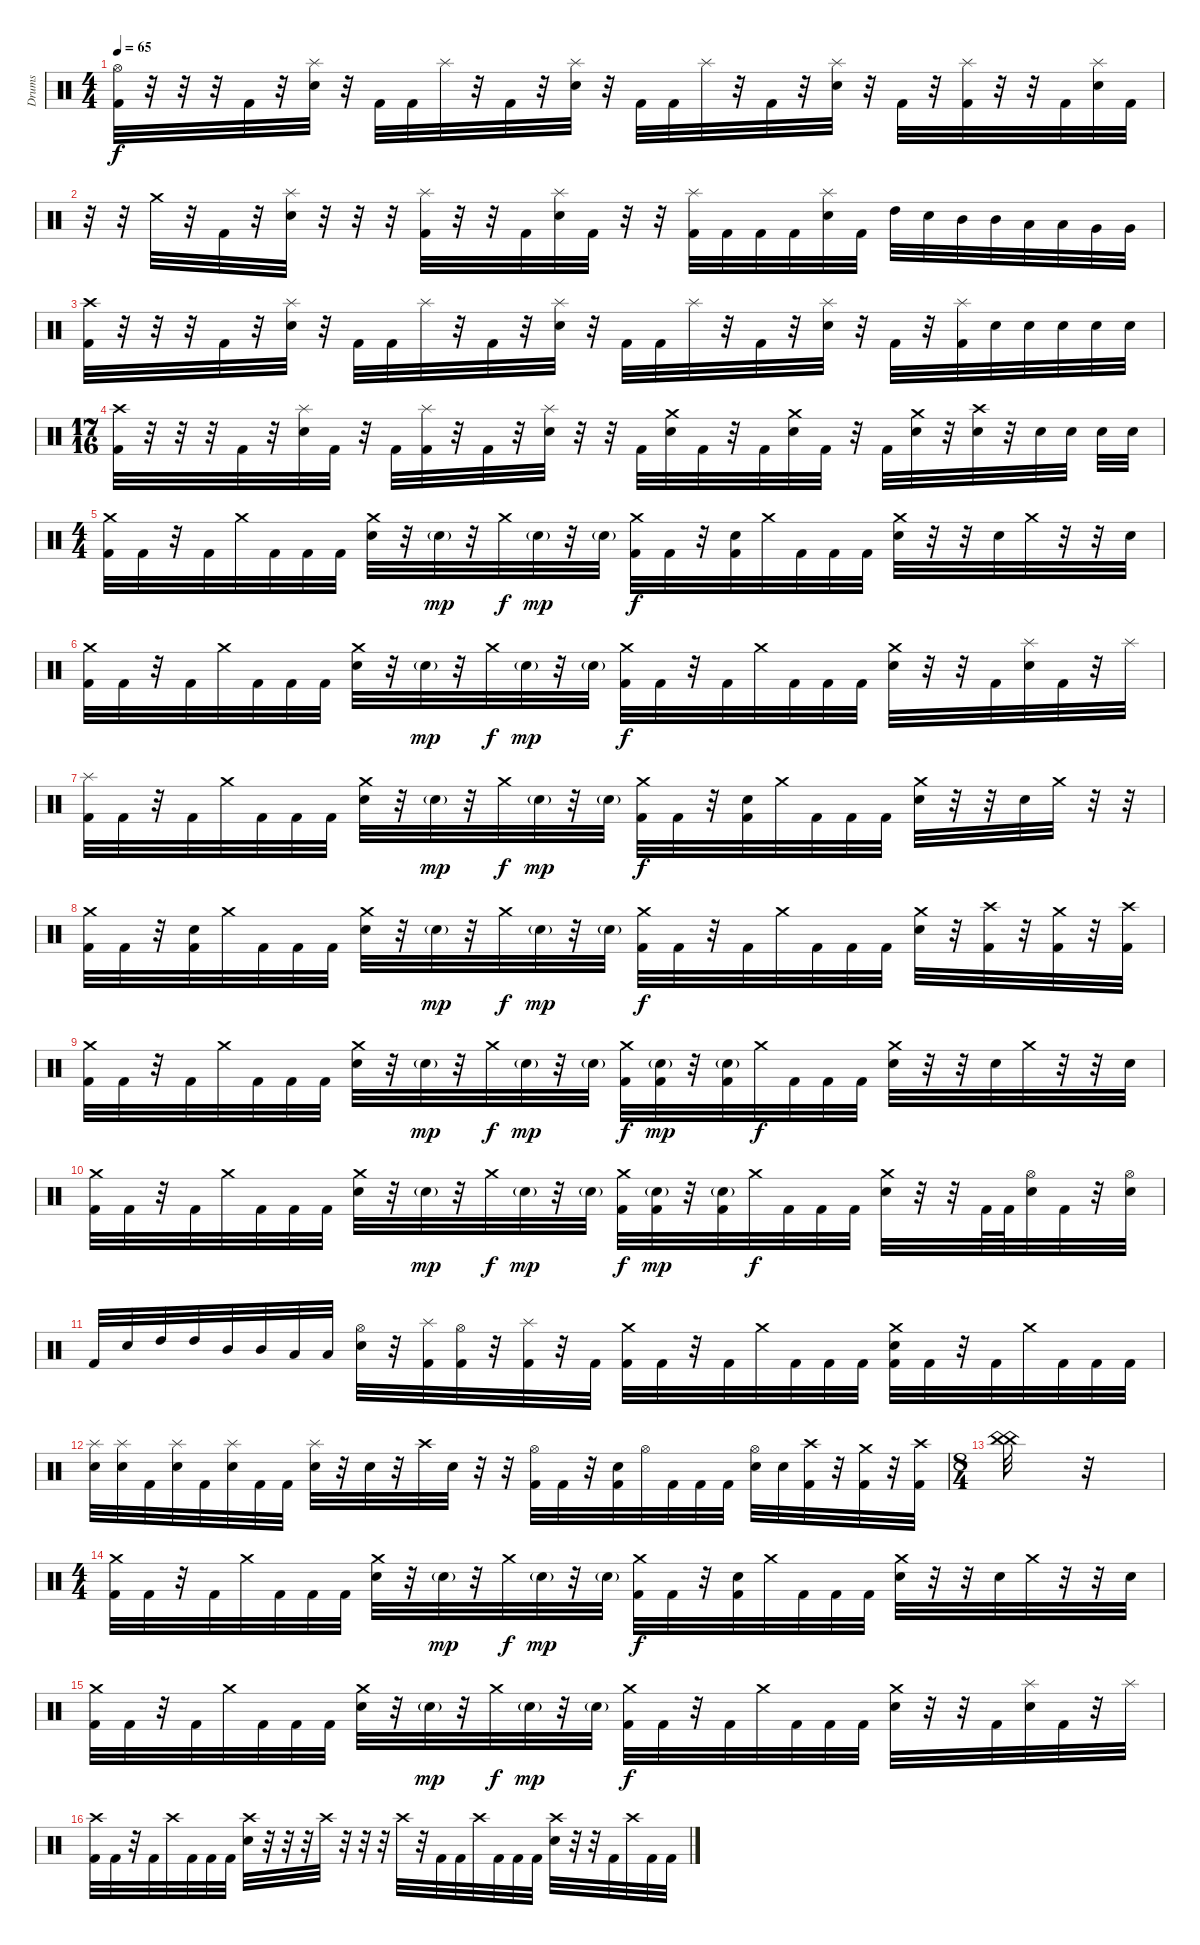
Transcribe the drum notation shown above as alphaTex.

\track ("Drums" "Drums") {instrument percussion}
\staff {score}
\articulation defaults
\ts (4 4)
\tempo 65
\clef neutral
\ks c
("Hi-Hat (open)" "Kick (hit) 2").32{dy f} r.32 r.32 r.32 "Kick (hit) 2".32 r.32 ("Splash (hit)" "Electric Snare (hit)").32 r.32 "Kick (hit) 2".32 "Kick (hit) 2".32 "Splash (hit)".32 r.32 "Kick (hit) 2".32 r.32 ("Splash (hit)" "Electric Snare (hit)").32 r.32 "Kick (hit) 2".32 "Kick (hit) 2".32 "Splash (hit)".32 r.32 "Kick (hit) 2".32 r.32 ("Splash (hit)" "Electric Snare (hit)").32 r.32 "Kick (hit) 2".32 r.32 ("Splash (hit)" "Kick (hit) 2").32 r.32 r.32 "Kick (hit) 2".32 ("Splash (hit)" "Electric Snare (hit)").32 "Kick (hit) 2".32 |
r.32 r.32 "Crash medium (hit)".32 r.32 "Kick (hit) 2".32 r.32 ("Splash (hit)" "Electric Snare (hit)").32 r.32 r.32 r.32 ("Splash (hit)" "Kick (hit) 2").32 r.32 r.32 "Kick (hit) 2".32 ("Splash (hit)" "Electric Snare (hit)").32 "Kick (hit) 2".32 r.32 r.32 ("Splash (hit)" "Kick (hit) 2").32 "Kick (hit) 2".32 "Kick (hit) 2".32 "Kick (hit) 2".32 ("Splash (hit)" "Electric Snare (hit)").32 "Kick (hit) 2".32 "High Tom (hit)".32 "Electric Snare (hit)".32 "Mid Tom (hit)".32 "Mid Tom (hit)".32 "Low Tom (hit)".32 "Low Tom (hit)".32 "Very Low Tom (hit)".32 "Very Low Tom (hit)".32 |
("Crash high (hit)" "Kick (hit) 2").32 r.32 r.32 r.32 "Kick (hit) 2".32 r.32 ("Splash (hit)" "Electric Snare (hit)").32 r.32 "Kick (hit) 2".32 "Kick (hit) 2".32 "Splash (hit)".32 r.32 "Kick (hit) 2".32 r.32 ("Splash (hit)" "Electric Snare (hit)").32 r.32 "Kick (hit) 2".32 "Kick (hit) 2".32 "Splash (hit)".32 r.32 "Kick (hit) 2".32 r.32 ("Splash (hit)" "Electric Snare (hit)").32 r.32 "Kick (hit) 2".32 r.32 ("Splash (hit)" "Kick (hit) 2").32 "Electric Snare (hit)".32 "Electric Snare (hit)".32 "Electric Snare (hit)".32 "Electric Snare (hit)".32 "Electric Snare (hit)".32 |
\ts (17 16)
("Crash high (hit)" "Kick (hit) 2").32 r.32 r.32 r.32 "Kick (hit) 2".32 r.32 ("Splash (hit)" "Electric Snare (hit)").32 "Kick (hit) 2".32 r.32 "Kick (hit) 2".32 ("Splash (hit)" "Kick (hit) 2").32 r.32 "Kick (hit) 2".32 r.32 ("Splash (hit)" "Electric Snare (hit)").32 r.32 r.32 "Kick (hit) 2".32 ("Crash medium (hit)" "Electric Snare (hit)").32 "Kick (hit) 2".32 r.32 "Kick (hit) 2".32 ("Crash medium (hit)" "Electric Snare (hit)").32 "Kick (hit) 2".32 r.32 "Kick (hit) 2".32 ("Crash medium (hit)" "Electric Snare (hit)").32 r.32 ("Crash high (hit)" "Electric Snare (hit)").32 r.32 "Electric Snare (hit)".32 "Electric Snare (hit)".32 "Electric Snare (hit)".32 "Electric Snare (hit)".32 |
\ts (4 4)
("Crash medium (hit)" "Kick (hit) 2").32 "Kick (hit) 2".32 r.32 "Kick (hit) 2".32 "Crash medium (hit)".32 "Kick (hit) 2".32 "Kick (hit) 2".32 "Kick (hit) 2".32 ("Crash medium (hit)" "Electric Snare (hit)").32 r.32 "Electric Snare (hit)"{g}.32{dy mp} r.32 "Crash medium (hit)".32{dy f} "Electric Snare (hit)"{g}.32{dy mp} r.32 "Electric Snare (hit)"{g}.32 ("Crash medium (hit)" "Kick (hit) 2").32{dy f} "Kick (hit) 2".32 r.32 ("Electric Snare (hit)" "Kick (hit) 2").32 "Crash medium (hit)".32 "Kick (hit) 2".32 "Kick (hit) 2".32 "Kick (hit) 2".32 ("Crash medium (hit)" "Electric Snare (hit)").32 r.32 r.32 "Electric Snare (hit)".32 "Crash medium (hit)".32 r.32 r.32 "Electric Snare (hit)".32 |
("Crash medium (hit)" "Kick (hit) 2").32 "Kick (hit) 2".32 r.32 "Kick (hit) 2".32 "Crash medium (hit)".32 "Kick (hit) 2".32 "Kick (hit) 2".32 "Kick (hit) 2".32 ("Crash medium (hit)" "Electric Snare (hit)").32 r.32 "Electric Snare (hit)"{g}.32{dy mp} r.32 "Crash medium (hit)".32{dy f} "Electric Snare (hit)"{g}.32{dy mp} r.32 "Electric Snare (hit)"{g}.32 ("Crash medium (hit)" "Kick (hit) 2").32{dy f} "Kick (hit) 2".32 r.32 "Kick (hit) 2".32 "Crash medium (hit)".32 "Kick (hit) 2".32 "Kick (hit) 2".32 "Kick (hit) 2".32 ("Crash medium (hit)" "Electric Snare (hit)").32 r.32 r.32 "Kick (hit) 2".32 ("Splash (hit)" "Electric Snare (hit)").32 "Kick (hit) 2".32 r.32 "Splash (hit)".32 |
("Splash (hit)" "Kick (hit) 2").32 "Kick (hit) 2".32 r.32 "Kick (hit) 2".32 "Crash medium (hit)".32 "Kick (hit) 2".32 "Kick (hit) 2".32 "Kick (hit) 2".32 ("Crash medium (hit)" "Electric Snare (hit)").32 r.32 "Electric Snare (hit)"{g}.32{dy mp} r.32 "Crash medium (hit)".32{dy f} "Electric Snare (hit)"{g}.32{dy mp} r.32 "Electric Snare (hit)"{g}.32 ("Crash medium (hit)" "Kick (hit) 2").32{dy f} "Kick (hit) 2".32 r.32 ("Electric Snare (hit)" "Kick (hit) 2").32 "Crash medium (hit)".32 "Kick (hit) 2".32 "Kick (hit) 2".32 "Kick (hit) 2".32 ("Crash medium (hit)" "Electric Snare (hit)").32 r.32 r.32 "Electric Snare (hit)".32 "Crash medium (hit)".32 r.32 r.32 |
("Crash medium (hit)" "Kick (hit) 2").32 "Kick (hit) 2".32 r.32 ("Electric Snare (hit)" "Kick (hit) 2").32 "Crash medium (hit)".32 "Kick (hit) 2".32 "Kick (hit) 2".32 "Kick (hit) 2".32 ("Crash medium (hit)" "Electric Snare (hit)").32 r.32 "Electric Snare (hit)"{g}.32{dy mp} r.32 "Crash medium (hit)".32{dy f} "Electric Snare (hit)"{g}.32{dy mp} r.32 "Electric Snare (hit)"{g}.32 ("Crash medium (hit)" "Kick (hit) 2").32{dy f} "Kick (hit) 2".32 r.32 "Kick (hit) 2".32 "Crash medium (hit)".32 "Kick (hit) 2".32 "Kick (hit) 2".32 "Kick (hit) 2".32 ("Crash medium (hit)" "Electric Snare (hit)").32 r.32 ("Crash high (hit)" "Kick (hit) 2").32 r.32 ("Crash medium (hit)" "Kick (hit) 2").32 r.32 ("Crash high (hit)" "Kick (hit) 2").32 |
("Crash medium (hit)" "Kick (hit) 2").32 "Kick (hit) 2".32 r.32 "Kick (hit) 2".32 "Crash medium (hit)".32 "Kick (hit) 2".32 "Kick (hit) 2".32 "Kick (hit) 2".32 ("Crash medium (hit)" "Electric Snare (hit)").32 r.32 "Electric Snare (hit)"{g}.32{dy mp} r.32 "Crash medium (hit)".32{dy f} "Electric Snare (hit)"{g}.32{dy mp} r.32 "Electric Snare (hit)"{g}.32 ("Crash medium (hit)" "Kick (hit) 2").32{dy f} ("Electric Snare (hit)"{g} "Kick (hit) 2").32{dy mp} r.32 ("Electric Snare (hit)"{g} "Kick (hit) 2").32 "Crash medium (hit)".32{dy f} "Kick (hit) 2".32 "Kick (hit) 2".32 "Kick (hit) 2".32 ("Crash medium (hit)" "Electric Snare (hit)").32 r.32 r.32 "Electric Snare (hit)".32 "Crash medium (hit)".32 r.32 r.32 "Electric Snare (hit)".32 |
("Crash medium (hit)" "Kick (hit) 2").32 "Kick (hit) 2".32 r.32 "Kick (hit) 2".32 "Crash medium (hit)".32 "Kick (hit) 2".32 "Kick (hit) 2".32 "Kick (hit) 2".32 ("Crash medium (hit)" "Electric Snare (hit)").32 r.32 "Electric Snare (hit)"{g}.32{dy mp} r.32 "Crash medium (hit)".32{dy f} "Electric Snare (hit)"{g}.32{dy mp} r.32 "Electric Snare (hit)"{g}.32 ("Crash medium (hit)" "Kick (hit) 2").32{dy f} ("Electric Snare (hit)"{g} "Kick (hit) 2").32{dy mp} r.32 ("Electric Snare (hit)"{g} "Kick (hit) 2").32 "Crash medium (hit)".32{dy f} "Kick (hit) 2".32 "Kick (hit) 2".32 "Kick (hit) 2".32 ("Crash medium (hit)" "Electric Snare (hit)").32 r.32 r.32 "Kick (hit) 2".64 "Kick (hit) 2".64 ("Hi-Hat (open)" "Electric Snare (hit)").32 "Kick (hit) 2".32 r.32 ("Hi-Hat (open)" "Electric Snare (hit)").32 |
"Kick (hit) 2".32 "Electric Snare (hit)".32 "High Tom (hit)".32 "High Tom (hit)".32 "Mid Tom (hit)".32 "Mid Tom (hit)".32 "Low Tom (hit)".32 "Low Tom (hit)".32 ("Hi-Hat (open)" "Electric Snare (hit)").32 r.32 ("Splash (hit)" "Kick (hit) 2").32 ("Hi-Hat (open)" "Kick (hit) 2").32 r.32 ("Splash (hit)" "Kick (hit) 2").32 r.32 "Kick (hit) 2".32 ("Crash medium (hit)" "Kick (hit) 2").32 "Kick (hit) 2".32 r.32 "Kick (hit) 2".32 "Crash medium (hit)".32 "Kick (hit) 2".32 "Kick (hit) 2".32 "Kick (hit) 2".32 ("Crash medium (hit)" "Electric Snare (hit)" "Kick (hit) 2").32 "Kick (hit) 2".32 r.32 "Kick (hit) 2".32 "Crash medium (hit)".32 "Kick (hit) 2".32 "Kick (hit) 2".32 "Kick (hit) 2".32 |
("Splash (hit)" "Electric Snare (hit)").32 ("Splash (hit)" "Electric Snare (hit)").32 "Kick (hit) 2".32 ("Splash (hit)" "Electric Snare (hit)").32 "Kick (hit) 2".32 ("Splash (hit)" "Electric Snare (hit)").32 "Kick (hit) 2".32 "Kick (hit) 2".32 ("Splash (hit)" "Electric Snare (hit)").32 r.32 "Electric Snare (hit)".32 r.32 "Crash high (hit)".32 "Electric Snare (hit)".32 r.32 r.32 ("Hi-Hat (open)" "Kick (hit) 2").32 "Kick (hit) 2".32 r.32 ("Electric Snare (hit)" "Kick (hit) 2").32 "Hi-Hat (open)".32 "Kick (hit) 2".32 "Kick (hit) 2".32 "Kick (hit) 2".32 ("Hi-Hat (open)" "Electric Snare (hit)").32 "Electric Snare (hit)".32 ("Crash high (hit)" "Kick (hit) 2").32 r.32 ("Crash medium (hit)" "Kick (hit) 2").32 r.32 ("Crash high (hit)" "Kick (hit) 2").32 |
\ts (8 4)
("China (hit)" "China (hit)").32 r.32 |
\ts (4 4)
("Crash medium (hit)" "Kick (hit) 2").32 "Kick (hit) 2".32 r.32 "Kick (hit) 2".32 "Crash medium (hit)".32 "Kick (hit) 2".32 "Kick (hit) 2".32 "Kick (hit) 2".32 ("Crash medium (hit)" "Electric Snare (hit)").32 r.32 "Electric Snare (hit)"{g}.32{dy mp} r.32 "Crash medium (hit)".32{dy f} "Electric Snare (hit)"{g}.32{dy mp} r.32 "Electric Snare (hit)"{g}.32 ("Crash medium (hit)" "Kick (hit) 2").32{dy f} "Kick (hit) 2".32 r.32 ("Electric Snare (hit)" "Kick (hit) 2").32 "Crash medium (hit)".32 "Kick (hit) 2".32 "Kick (hit) 2".32 "Kick (hit) 2".32 ("Crash medium (hit)" "Electric Snare (hit)").32 r.32 r.32 "Electric Snare (hit)".32 "Crash medium (hit)".32 r.32 r.32 "Electric Snare (hit)".32 |
("Crash medium (hit)" "Kick (hit) 2").32 "Kick (hit) 2".32 r.32 "Kick (hit) 2".32 "Crash medium (hit)".32 "Kick (hit) 2".32 "Kick (hit) 2".32 "Kick (hit) 2".32 ("Crash medium (hit)" "Electric Snare (hit)").32 r.32 "Electric Snare (hit)"{g}.32{dy mp} r.32 "Crash medium (hit)".32{dy f} "Electric Snare (hit)"{g}.32{dy mp} r.32 "Electric Snare (hit)"{g}.32 ("Crash medium (hit)" "Kick (hit) 2").32{dy f} "Kick (hit) 2".32 r.32 "Kick (hit) 2".32 "Crash medium (hit)".32 "Kick (hit) 2".32 "Kick (hit) 2".32 "Kick (hit) 2".32 ("Crash medium (hit)" "Electric Snare (hit)").32 r.32 r.32 "Kick (hit) 2".32 ("Splash (hit)" "Electric Snare (hit)").32 "Kick (hit) 2".32 r.32 "Splash (hit)".32 |
("Crash high (hit)" "Kick (hit) 2").32 "Kick (hit) 2".32 r.32 "Kick (hit) 2".32 "Crash high (hit)".32 "Kick (hit) 2".32 "Kick (hit) 2".32 "Kick (hit) 2".32 ("Crash high (hit)" "Electric Snare (hit)").32 r.32 r.32 r.32 "Crash high (hit)".32 r.32 r.32 r.32 "Crash high (hit)".32 r.32 "Kick (hit) 2".32 "Kick (hit) 2".32 "Crash high (hit)".32 "Kick (hit) 2".32 "Kick (hit) 2".32 "Kick (hit) 2".32 ("Crash high (hit)" "Electric Snare (hit)").32 r.32 r.32 "Kick (hit) 2".32 "Crash high (hit)".32 "Kick (hit) 2".32 "Kick (hit) 2".32
